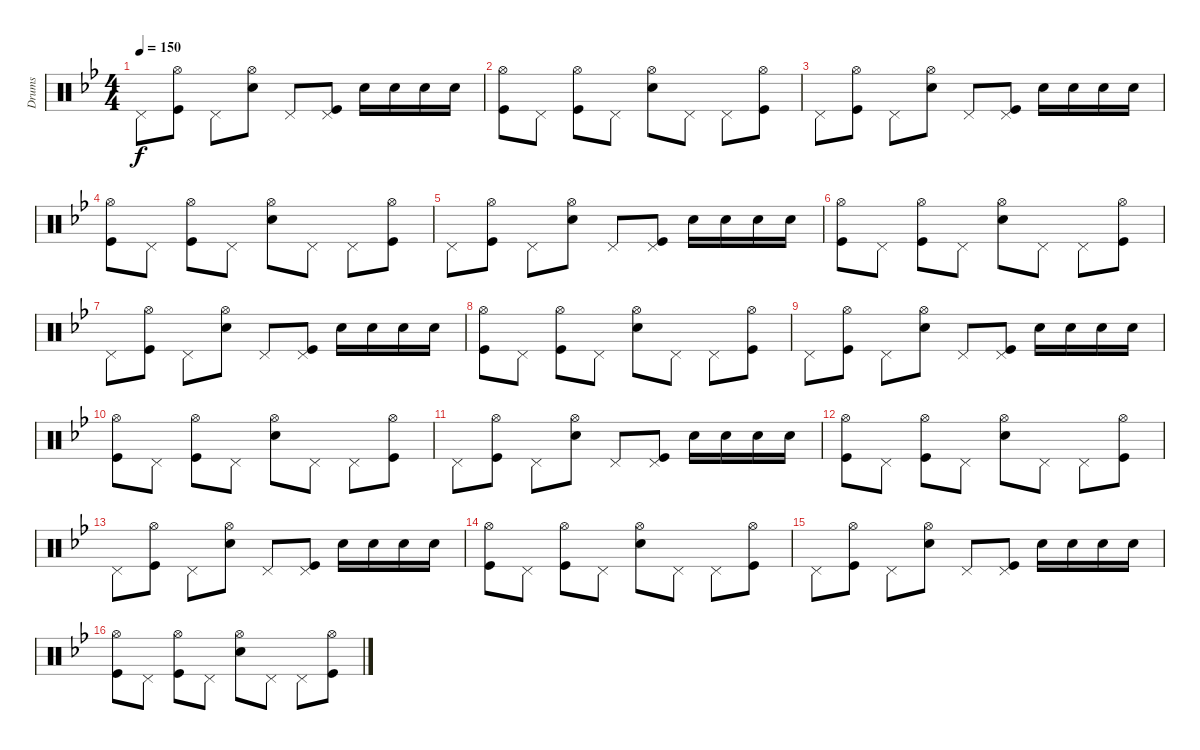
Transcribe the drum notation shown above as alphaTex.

\track ("Drums" "Drums") {instrument percussion}
\staff {score}
\articulation defaults
\ts (4 4)
\tempo 150
\clef neutral
\ks bb "Pedal Hi-Hat (hit)".8{dy f}
("Hi-Hat (open)" "Kick (hit)").8 "Pedal Hi-Hat (hit)".8 ("Hi-Hat (open)" "Electric Snare (hit)").8 "Pedal Hi-Hat (hit)".8 ("Pedal Hi-Hat (hit)" "Kick (hit)").8 "Electric Snare (hit)".16 "Electric Snare (hit)".16 "Electric Snare (hit)".16 "Electric Snare (hit)".16 |
("Hi-Hat (open)" "Kick (hit)").8 "Pedal Hi-Hat (hit)".8 ("Hi-Hat (open)" "Kick (hit)").8 "Pedal Hi-Hat (hit)".8 ("Hi-Hat (open)" "Electric Snare (hit)").8 "Pedal Hi-Hat (hit)".8 "Pedal Hi-Hat (hit)".8 ("Hi-Hat (open)" "Kick (hit)").8 |
"Pedal Hi-Hat (hit)".8 ("Hi-Hat (open)" "Kick (hit)").8 "Pedal Hi-Hat (hit)".8 ("Hi-Hat (open)" "Electric Snare (hit)").8 "Pedal Hi-Hat (hit)".8 ("Pedal Hi-Hat (hit)" "Kick (hit)").8 "Electric Snare (hit)".16 "Electric Snare (hit)".16 "Electric Snare (hit)".16 "Electric Snare (hit)".16 |
("Hi-Hat (open)" "Kick (hit)").8 "Pedal Hi-Hat (hit)".8 ("Hi-Hat (open)" "Kick (hit)").8 "Pedal Hi-Hat (hit)".8 ("Hi-Hat (open)" "Electric Snare (hit)").8 "Pedal Hi-Hat (hit)".8 "Pedal Hi-Hat (hit)".8 ("Hi-Hat (open)" "Kick (hit)").8 |
"Pedal Hi-Hat (hit)".8 ("Hi-Hat (open)" "Kick (hit)").8 "Pedal Hi-Hat (hit)".8 ("Hi-Hat (open)" "Electric Snare (hit)").8 "Pedal Hi-Hat (hit)".8 ("Pedal Hi-Hat (hit)" "Kick (hit)").8 "Electric Snare (hit)".16 "Electric Snare (hit)".16 "Electric Snare (hit)".16 "Electric Snare (hit)".16 |
("Hi-Hat (open)" "Kick (hit)").8 "Pedal Hi-Hat (hit)".8 ("Hi-Hat (open)" "Kick (hit)").8 "Pedal Hi-Hat (hit)".8 ("Hi-Hat (open)" "Electric Snare (hit)").8 "Pedal Hi-Hat (hit)".8 "Pedal Hi-Hat (hit)".8 ("Hi-Hat (open)" "Kick (hit)").8 |
"Pedal Hi-Hat (hit)".8 ("Hi-Hat (open)" "Kick (hit)").8 "Pedal Hi-Hat (hit)".8 ("Hi-Hat (open)" "Electric Snare (hit)").8 "Pedal Hi-Hat (hit)".8 ("Pedal Hi-Hat (hit)" "Kick (hit)").8 "Electric Snare (hit)".16 "Electric Snare (hit)".16 "Electric Snare (hit)".16 "Electric Snare (hit)".16 |
("Hi-Hat (open)" "Kick (hit)").8 "Pedal Hi-Hat (hit)".8 ("Hi-Hat (open)" "Kick (hit)").8 "Pedal Hi-Hat (hit)".8 ("Hi-Hat (open)" "Electric Snare (hit)").8 "Pedal Hi-Hat (hit)".8 "Pedal Hi-Hat (hit)".8 ("Hi-Hat (open)" "Kick (hit)").8 |
"Pedal Hi-Hat (hit)".8 ("Hi-Hat (open)" "Kick (hit)").8 "Pedal Hi-Hat (hit)".8 ("Hi-Hat (open)" "Electric Snare (hit)").8 "Pedal Hi-Hat (hit)".8 ("Pedal Hi-Hat (hit)" "Kick (hit)").8 "Electric Snare (hit)".16 "Electric Snare (hit)".16 "Electric Snare (hit)".16 "Electric Snare (hit)".16 |
("Hi-Hat (open)" "Kick (hit)").8 "Pedal Hi-Hat (hit)".8 ("Hi-Hat (open)" "Kick (hit)").8 "Pedal Hi-Hat (hit)".8 ("Hi-Hat (open)" "Electric Snare (hit)").8 "Pedal Hi-Hat (hit)".8 "Pedal Hi-Hat (hit)".8 ("Hi-Hat (open)" "Kick (hit)").8 |
"Pedal Hi-Hat (hit)".8 ("Hi-Hat (open)" "Kick (hit)").8 "Pedal Hi-Hat (hit)".8 ("Hi-Hat (open)" "Electric Snare (hit)").8 "Pedal Hi-Hat (hit)".8 ("Pedal Hi-Hat (hit)" "Kick (hit)").8 "Electric Snare (hit)".16 "Electric Snare (hit)".16 "Electric Snare (hit)".16 "Electric Snare (hit)".16 |
("Hi-Hat (open)" "Kick (hit)").8 "Pedal Hi-Hat (hit)".8 ("Hi-Hat (open)" "Kick (hit)").8 "Pedal Hi-Hat (hit)".8 ("Hi-Hat (open)" "Electric Snare (hit)").8 "Pedal Hi-Hat (hit)".8 "Pedal Hi-Hat (hit)".8 ("Hi-Hat (open)" "Kick (hit)").8 |
"Pedal Hi-Hat (hit)".8 ("Hi-Hat (open)" "Kick (hit)").8 "Pedal Hi-Hat (hit)".8 ("Hi-Hat (open)" "Electric Snare (hit)").8 "Pedal Hi-Hat (hit)".8 ("Pedal Hi-Hat (hit)" "Kick (hit)").8 "Electric Snare (hit)".16 "Electric Snare (hit)".16 "Electric Snare (hit)".16 "Electric Snare (hit)".16 |
("Hi-Hat (open)" "Kick (hit)").8 "Pedal Hi-Hat (hit)".8 ("Hi-Hat (open)" "Kick (hit)").8 "Pedal Hi-Hat (hit)".8 ("Hi-Hat (open)" "Electric Snare (hit)").8 "Pedal Hi-Hat (hit)".8 "Pedal Hi-Hat (hit)".8 ("Hi-Hat (open)" "Kick (hit)").8 |
"Pedal Hi-Hat (hit)".8 ("Hi-Hat (open)" "Kick (hit)").8 "Pedal Hi-Hat (hit)".8 ("Hi-Hat (open)" "Electric Snare (hit)").8 "Pedal Hi-Hat (hit)".8 ("Pedal Hi-Hat (hit)" "Kick (hit)").8 "Electric Snare (hit)".16 "Electric Snare (hit)".16 "Electric Snare (hit)".16 "Electric Snare (hit)".16 |
("Hi-Hat (open)" "Kick (hit)").8 "Pedal Hi-Hat (hit)".8 ("Hi-Hat (open)" "Kick (hit)").8 "Pedal Hi-Hat (hit)".8 ("Hi-Hat (open)" "Electric Snare (hit)").8 "Pedal Hi-Hat (hit)".8 "Pedal Hi-Hat (hit)".8 ("Hi-Hat (open)" "Kick (hit)").8
